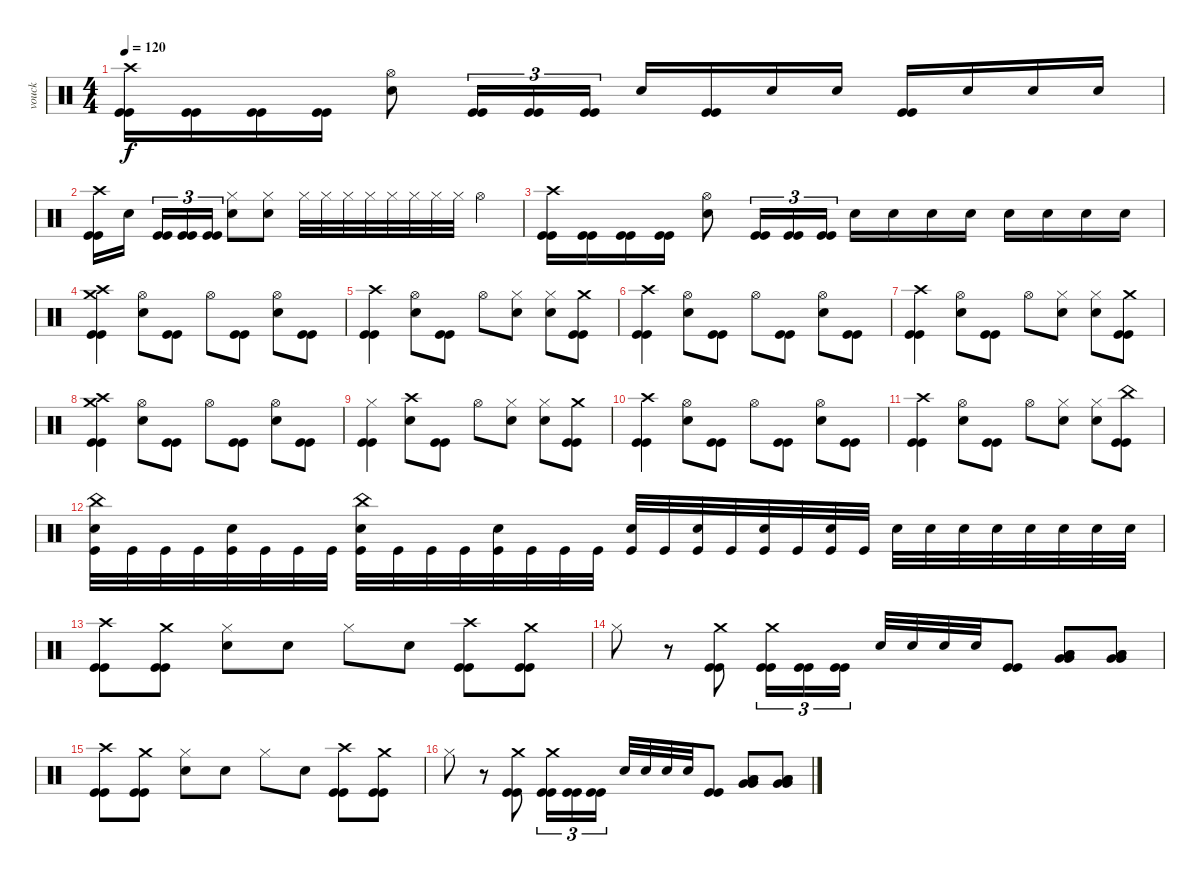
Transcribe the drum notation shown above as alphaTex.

\track ("vouck" "vouck") {instrument percussion}
\staff {score}
\articulation defaults
\ts (4 4)
\tempo 120
\clef neutral
\ks c
("Crash high (hit)" "Kick (hit)" "Kick (hit)").16{dy f} ("Kick (hit)" "Kick (hit)").16 ("Kick (hit)" "Kick (hit)").16 ("Kick (hit)" "Kick (hit)").16 ("Hi-Hat (open)" "Electric Snare (hit)").8 ("Kick (hit)" "Kick (hit)").16{tu (3 2)} ("Kick (hit)" "Kick (hit)").16{tu (3 2)} ("Kick (hit)" "Kick (hit)").16{tu (3 2)} "Electric Snare (hit)".16 ("Kick (hit)" "Kick (hit)").16 "Electric Snare (hit)".16 "Electric Snare (hit)".16 ("Kick (hit)" "Kick (hit)").16 "Electric Snare (hit)".16 "Electric Snare (hit)".16 "Electric Snare (hit)".16 |
("Crash high (hit)" "Kick (hit)" "Kick (hit)").16 "Electric Snare (hit)".16 ("Kick (hit)" "Kick (hit)").16{tu (3 2)} ("Kick (hit)" "Kick (hit)").16{tu (3 2)} ("Kick (hit)" "Kick (hit)").16{tu (3 2)} ("Hi-Hat (closed)" "Electric Snare (hit)").8 ("Hi-Hat (closed)" "Electric Snare (hit)").8 "Hi-Hat (closed)".32 "Hi-Hat (closed)".32 "Hi-Hat (closed)".32 "Hi-Hat (closed)".32 "Hi-Hat (closed)".32 "Hi-Hat (closed)".32 "Hi-Hat (closed)".32 "Hi-Hat (closed)".32 "Hi-Hat (open)".4 |
("Crash high (hit)" "Kick (hit)" "Kick (hit)").16 ("Kick (hit)" "Kick (hit)").16 ("Kick (hit)" "Kick (hit)").16 ("Kick (hit)" "Kick (hit)").16 ("Hi-Hat (open)" "Electric Snare (hit)").8 ("Kick (hit)" "Kick (hit)").16{tu (3 2)} ("Kick (hit)" "Kick (hit)").16{tu (3 2)} ("Kick (hit)" "Kick (hit)").16{tu (3 2)} "Electric Snare (hit)".16 "Electric Snare (hit)".16 "Electric Snare (hit)".16 "Electric Snare (hit)".16 "Electric Snare (hit)".16 "Electric Snare (hit)".16 "Electric Snare (hit)".16 "Electric Snare (hit)".16 |
("Crash medium (hit)" "Crash high (hit)" "Kick (hit)" "Kick (hit)").4 ("Hi-Hat (open)" "Electric Snare (hit)").8 ("Kick (hit)" "Kick (hit)").8 "Hi-Hat (open)".8 ("Kick (hit)" "Kick (hit)").8 ("Hi-Hat (open)" "Electric Snare (hit)").8 ("Kick (hit)" "Kick (hit)").8 |
("Crash high (hit)" "Kick (hit)" "Kick (hit)").4 ("Hi-Hat (open)" "Electric Snare (hit)").8 ("Kick (hit)" "Kick (hit)").8 "Hi-Hat (open)".8 ("Hi-Hat (closed)" "Electric Snare (hit)").8 ("Hi-Hat (closed)" "Electric Snare (hit)").8 ("Crash medium (hit)" "Kick (hit)" "Kick (hit)").8 |
("Crash high (hit)" "Kick (hit)" "Kick (hit)").4 ("Hi-Hat (open)" "Electric Snare (hit)").8 ("Kick (hit)" "Kick (hit)").8 "Hi-Hat (open)".8 ("Kick (hit)" "Kick (hit)").8 ("Hi-Hat (open)" "Electric Snare (hit)").8 ("Kick (hit)" "Kick (hit)").8 |
("Crash high (hit)" "Kick (hit)" "Kick (hit)").4 ("Hi-Hat (open)" "Electric Snare (hit)").8 ("Kick (hit)" "Kick (hit)").8 "Hi-Hat (open)".8 ("Hi-Hat (closed)" "Electric Snare (hit)").8 ("Hi-Hat (closed)" "Electric Snare (hit)").8 ("Crash medium (hit)" "Kick (hit)" "Kick (hit)").8 |
("Crash medium (hit)" "Crash high (hit)" "Kick (hit)" "Kick (hit)").4 ("Hi-Hat (open)" "Electric Snare (hit)").8 ("Kick (hit)" "Kick (hit)").8 "Hi-Hat (open)".8 ("Kick (hit)" "Kick (hit)").8 ("Hi-Hat (open)" "Electric Snare (hit)").8 ("Kick (hit)" "Kick (hit)").8 |
("Hi-Hat (closed)" "Kick (hit)" "Kick (hit)").4 ("Crash high (hit)" "Electric Snare (hit)").8 ("Kick (hit)" "Kick (hit)").8 "Hi-Hat (open)".8 ("Hi-Hat (closed)" "Electric Snare (hit)").8 ("Hi-Hat (closed)" "Electric Snare (hit)").8 ("Crash medium (hit)" "Kick (hit)" "Kick (hit)").8 |
("Crash high (hit)" "Kick (hit)" "Kick (hit)").4 ("Hi-Hat (open)" "Electric Snare (hit)").8 ("Kick (hit)" "Kick (hit)").8 "Hi-Hat (open)".8 ("Kick (hit)" "Kick (hit)").8 ("Hi-Hat (open)" "Electric Snare (hit)").8 ("Kick (hit)" "Kick (hit)").8 |
("Crash high (hit)" "Kick (hit)" "Kick (hit)").4 ("Hi-Hat (open)" "Electric Snare (hit)").8 ("Kick (hit)" "Kick (hit)").8 "Hi-Hat (open)".8 ("Hi-Hat (closed)" "Electric Snare (hit)").8 ("Hi-Hat (closed)" "Electric Snare (hit)").8 ("China (hit)" "Kick (hit)" "Kick (hit)").8 |
("China (hit)" "Electric Snare (hit)" "Kick (hit)").32 "Kick (hit)".32 "Kick (hit)".32 "Kick (hit)".32 ("Electric Snare (hit)" "Kick (hit)").32 "Kick (hit)".32 "Kick (hit)".32 "Kick (hit)".32 ("China (hit)" "Electric Snare (hit)" "Kick (hit)").32 "Kick (hit)".32 "Kick (hit)".32 "Kick (hit)".32 ("Electric Snare (hit)" "Kick (hit)").32 "Kick (hit)".32 "Kick (hit)".32 "Kick (hit)".32 ("Electric Snare (hit)" "Kick (hit)").32 "Kick (hit)".32 ("Electric Snare (hit)" "Kick (hit)").32 "Kick (hit)".32 ("Electric Snare (hit)" "Kick (hit)").32 "Kick (hit)".32 ("Electric Snare (hit)" "Kick (hit)").32 "Kick (hit)".32 "Electric Snare (hit)".32 "Electric Snare (hit)".32 "Electric Snare (hit)".32 "Electric Snare (hit)".32 "Electric Snare (hit)".32 "Electric Snare (hit)".32 "Electric Snare (hit)".32 "Electric Snare (hit)".32 |
("Crash high (hit)" "Kick (hit)" "Kick (hit)").8 ("Crash medium (hit)" "Kick (hit)" "Kick (hit)").8 ("Hi-Hat (closed)" "Electric Snare (hit)").8 "Electric Snare (hit)".8 "Hi-Hat (closed)".8 "Electric Snare (hit)".8 ("Crash high (hit)" "Kick (hit)" "Kick (hit)").8 ("Crash medium (hit)" "Kick (hit)" "Kick (hit)").8 |
"Hi-Hat (closed)".8 r.8 ("Crash medium (hit)" "Kick (hit)" "Kick (hit)").8 ("Crash medium (hit)" "Kick (hit)" "Kick (hit)").16{tu (3 2)} ("Kick (hit)" "Kick (hit)").16{tu (3 2)} ("Kick (hit)" "Kick (hit)").16{tu (3 2)} "Electric Snare (hit)".32 "Electric Snare (hit)".32 "Electric Snare (hit)".32 "Electric Snare (hit)".32 ("Kick (hit)" "Kick (hit)").8 ("Low Tom (hit)" "Low Tom (hit)" "Very Low Tom (hit)" "Very Low Tom (hit)").8 ("Low Tom (hit)" "Low Tom (hit)" "Very Low Tom (hit)" "Very Low Tom (hit)").8 |
("Crash high (hit)" "Kick (hit)" "Kick (hit)").8 ("Crash medium (hit)" "Kick (hit)" "Kick (hit)").8 ("Hi-Hat (closed)" "Electric Snare (hit)").8 "Electric Snare (hit)".8 "Hi-Hat (closed)".8 "Electric Snare (hit)".8 ("Crash high (hit)" "Kick (hit)" "Kick (hit)").8 ("Crash medium (hit)" "Kick (hit)" "Kick (hit)").8 |
"Hi-Hat (closed)".8 r.8 ("Crash medium (hit)" "Kick (hit)" "Kick (hit)").8 ("Crash medium (hit)" "Kick (hit)" "Kick (hit)").16{tu (3 2)} ("Kick (hit)" "Kick (hit)").16{tu (3 2)} ("Kick (hit)" "Kick (hit)").16{tu (3 2)} "Electric Snare (hit)".32 "Electric Snare (hit)".32 "Electric Snare (hit)".32 "Electric Snare (hit)".32 ("Kick (hit)" "Kick (hit)").8 ("Low Tom (hit)" "Low Tom (hit)" "Very Low Tom (hit)" "Very Low Tom (hit)").8 ("Low Tom (hit)" "Low Tom (hit)" "Very Low Tom (hit)" "Very Low Tom (hit)").8
